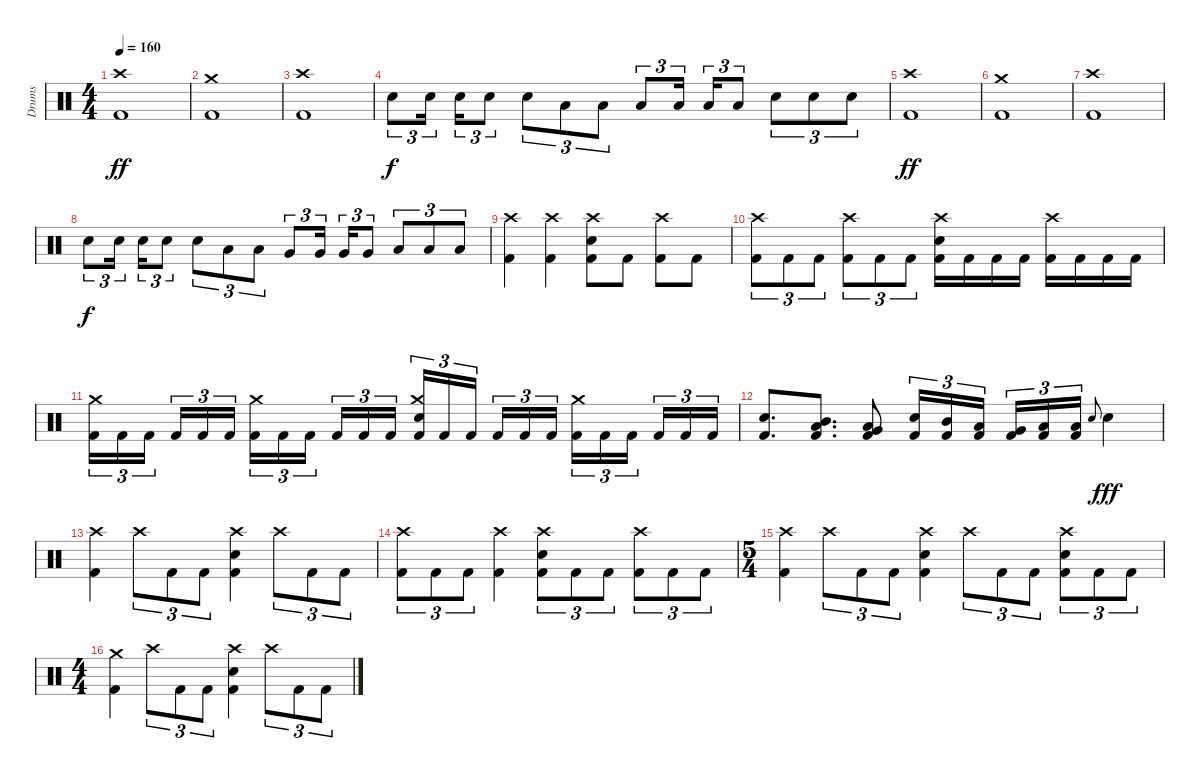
\track ("Drums" "Drums") {instrument percussion}
\staff {score}
\articulation defaults
\ts (4 4)
\tempo 160
\clef neutral
\ks c
("Crash high (hit)" "Kick (hit) 2").1{dy ff} |
("Crash medium (hit)" "Kick (hit) 2").1 |
("Crash high (hit)" "Kick (hit) 2").1 |
"Snare (hit) 2".8{tu (3 2) dy f} "Snare (hit) 2".16{tu (3 2) beam splitsecondary} "Snare (hit) 2".16{tu (3 2)} "Snare (hit) 2".8{tu (3 2)} "Snare (hit) 2".8{tu (3 2)} "Low Tom (hit)".8{tu (3 2)} "Low Tom (hit)".8{tu (3 2)} "Low Floor Tom (hit)".8{tu (3 2)} "Low Floor Tom (hit)".16{tu (3 2) beam splitsecondary} "Low Floor Tom (hit)".16{tu (3 2)} "Low Floor Tom (hit)".8{tu (3 2)} "Snare (hit) 2".8{tu (3 2)} "Snare (hit) 2".8{tu (3 2)} "Snare (hit) 2".8{tu (3 2)} |
("Crash high (hit)" "Kick (hit) 2").1{dy ff} |
("Crash medium (hit)" "Kick (hit) 2").1 |
("Crash high (hit)" "Kick (hit) 2").1 |
"Snare (hit) 2".8{tu (3 2) dy f} "Snare (hit) 2".16{tu (3 2) beam splitsecondary} "Snare (hit) 2".16{tu (3 2)} "Snare (hit) 2".8{tu (3 2)} "Snare (hit) 2".8{tu (3 2)} "Low Tom (hit)".8{tu (3 2)} "Low Tom (hit)".8{tu (3 2)} "Very Low Tom (hit)".8{tu (3 2)} "Very Low Tom (hit)".16{tu (3 2) beam splitsecondary} "Very Low Tom (hit)".16{tu (3 2)} "Very Low Tom (hit)".8{tu (3 2)} "Low Floor Tom (hit)".8{tu (3 2)} "Low Floor Tom (hit)".8{tu (3 2)} "Low Floor Tom (hit)".8{tu (3 2)} |
("Crash high (hit)" "Kick (hit) 2").4 ("Crash high (hit)" "Kick (hit) 2").4 ("Crash high (hit)" "Snare (hit) 2" "Kick (hit) 2").8 "Kick (hit) 2".8 ("Crash high (hit)" "Kick (hit) 2").8 "Kick (hit) 2".8 |
("Crash high (hit)" "Kick (hit) 2").8{tu (3 2)} "Kick (hit) 2".8{tu (3 2)} "Kick (hit) 2".8{tu (3 2)} ("Crash high (hit)" "Kick (hit) 2").8{tu (3 2)} "Kick (hit) 2".8{tu (3 2)} "Kick (hit) 2".8{tu (3 2)} ("Crash high (hit)" "Snare (hit) 2" "Kick (hit) 2").16 "Kick (hit) 2".16 "Kick (hit) 2".16 "Kick (hit) 2".16 ("Crash high (hit)" "Kick (hit) 2").16 "Kick (hit) 2".16 "Kick (hit) 2".16 "Kick (hit) 2".16 |
("Crash medium (hit)" "Kick (hit) 2").16{tu (3 2)} "Kick (hit) 2".16{tu (3 2)} "Kick (hit) 2".16{tu (3 2) beam splitsecondary} "Kick (hit) 2".16{tu (3 2)} "Kick (hit) 2".16{tu (3 2)} "Kick (hit) 2".16{tu (3 2)} ("Crash medium (hit)" "Kick (hit) 2").16{tu (3 2)} "Kick (hit) 2".16{tu (3 2)} "Kick (hit) 2".16{tu (3 2) beam splitsecondary} "Kick (hit) 2".16{tu (3 2)} "Kick (hit) 2".16{tu (3 2)} "Kick (hit) 2".16{tu (3 2)} ("Crash medium (hit)" "Snare (hit) 2" "Kick (hit) 2").16{tu (3 2)} "Kick (hit) 2".16{tu (3 2)} "Kick (hit) 2".16{tu (3 2) beam splitsecondary} "Kick (hit) 2".16{tu (3 2)} "Kick (hit) 2".16{tu (3 2)} "Kick (hit) 2".16{tu (3 2)} ("Crash medium (hit)" "Kick (hit) 2").16{tu (3 2)} "Kick (hit) 2".16{tu (3 2)} "Kick (hit) 2".16{tu (3 2) beam splitsecondary} "Kick (hit) 2".16{tu (3 2)} "Kick (hit) 2".16{tu (3 2)} "Kick (hit) 2".16{tu (3 2)} |
("Snare (hit) 2" "Kick (hit) 2").8{d} ("Mid Tom (hit)" "Low Tom (hit)" "Kick (hit) 2").8{d} ("Low Tom (hit)" "Very Low Tom (hit)" "Kick (hit) 2").8 ("Snare (hit) 2" "Kick (hit) 2").16{tu (3 2)} ("Mid Tom (hit)" "Kick (hit) 2").16{tu (3 2)} ("Low Tom (hit)" "Kick (hit) 2").16{tu (3 2) beam splitsecondary} ("Very Low Tom (hit)" "Kick (hit) 2").16{tu (3 2)} ("Low Floor Tom (hit)" "Kick (hit) 2").16{tu (3 2)} ("Low Floor Tom (hit)" "Kick (hit) 2").16{tu (3 2)} "Snare (hit) 2".8{gr onbeat} "Snare (hit) 2".4{dy fff} |
("Crash high (hit)" "Kick (hit) 2").4 "Crash high (hit)".8{tu (3 2)} "Kick (hit) 2".8{tu (3 2)} "Kick (hit) 2".8{tu (3 2)} ("Crash high (hit)" "Snare (hit) 2" "Kick (hit) 2").4 "Crash high (hit)".8{tu (3 2)} "Kick (hit) 2".8{tu (3 2)} "Kick (hit) 2".8{tu (3 2)} |
("Crash high (hit)" "Kick (hit) 2").8{tu (3 2)} "Kick (hit) 2".8{tu (3 2)} "Kick (hit) 2".8{tu (3 2)} ("Crash high (hit)" "Kick (hit) 2").4 ("Crash high (hit)" "Snare (hit) 2" "Kick (hit) 2").8{tu (3 2)} "Kick (hit) 2".8{tu (3 2)} "Kick (hit) 2".8{tu (3 2)} ("Crash high (hit)" "Kick (hit) 2").8{tu (3 2)} "Kick (hit) 2".8{tu (3 2)} "Kick (hit) 2".8{tu (3 2)} |
\ts (5 4)
("Crash high (hit)" "Kick (hit) 2").4 "Crash high (hit)".8{tu (3 2)} "Kick (hit) 2".8{tu (3 2)} "Kick (hit) 2".8{tu (3 2)} ("Crash high (hit)" "Snare (hit) 2" "Kick (hit) 2").4 "Crash high (hit)".8{tu (3 2)} "Kick (hit) 2".8{tu (3 2)} "Kick (hit) 2".8{tu (3 2)} ("Crash high (hit)" "Snare (hit) 2" "Kick (hit) 2").8{tu (3 2)} "Kick (hit) 2".8{tu (3 2)} "Kick (hit) 2".8{tu (3 2)} |
\ts (4 4)
("Crash medium (hit)" "Kick (hit) 2").4 "Crash high (hit)".8{tu (3 2)} "Kick (hit) 2".8{tu (3 2)} "Kick (hit) 2".8{tu (3 2)} ("Crash high (hit)" "Snare (hit) 2" "Kick (hit) 2").4 "Crash high (hit)".8{tu (3 2)} "Kick (hit) 2".8{tu (3 2)} "Kick (hit) 2".8{tu (3 2)}
